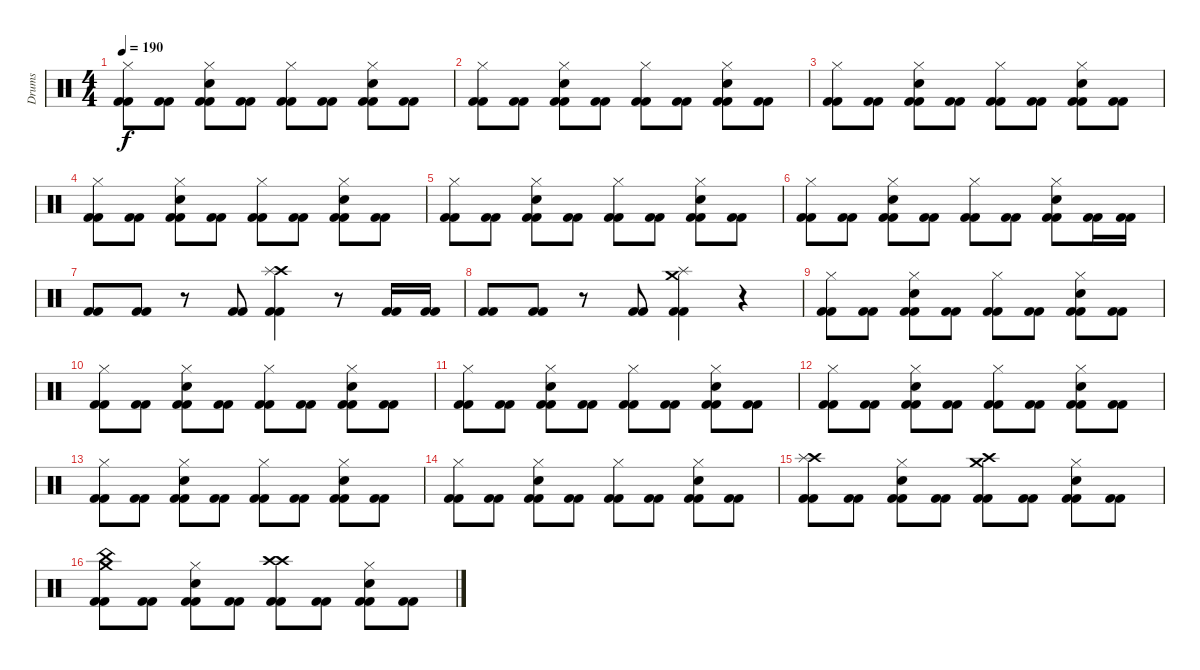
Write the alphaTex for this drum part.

\track ("Drums" "Drums") {instrument percussion}
\staff {score}
\articulation defaults
\ts (4 4)
\tempo 190
\clef neutral
\ks c
("Hi-Hat (closed)" "Kick (hit) 2" "Kick (hit) 2").8{dy f} ("Kick (hit) 2" "Kick (hit) 2").8 ("Hi-Hat (closed)" "Snare (hit) 2" "Kick (hit) 2" "Kick (hit) 2").8 ("Kick (hit) 2" "Kick (hit) 2").8 ("Hi-Hat (closed)" "Kick (hit) 2" "Kick (hit) 2").8 ("Kick (hit) 2" "Kick (hit) 2").8 ("Hi-Hat (closed)" "Snare (hit) 2" "Kick (hit) 2" "Kick (hit) 2").8 ("Kick (hit) 2" "Kick (hit) 2").8 |
("Hi-Hat (closed)" "Kick (hit) 2" "Kick (hit) 2").8 ("Kick (hit) 2" "Kick (hit) 2").8 ("Hi-Hat (closed)" "Snare (hit) 2" "Kick (hit) 2" "Kick (hit) 2").8 ("Kick (hit) 2" "Kick (hit) 2").8 ("Hi-Hat (closed)" "Kick (hit) 2" "Kick (hit) 2").8 ("Kick (hit) 2" "Kick (hit) 2").8 ("Hi-Hat (closed)" "Snare (hit) 2" "Kick (hit) 2" "Kick (hit) 2").8 ("Kick (hit) 2" "Kick (hit) 2").8 |
("Hi-Hat (closed)" "Kick (hit) 2" "Kick (hit) 2").8 ("Kick (hit) 2" "Kick (hit) 2").8 ("Hi-Hat (closed)" "Snare (hit) 2" "Kick (hit) 2" "Kick (hit) 2").8 ("Kick (hit) 2" "Kick (hit) 2").8 ("Hi-Hat (closed)" "Kick (hit) 2" "Kick (hit) 2").8 ("Kick (hit) 2" "Kick (hit) 2").8 ("Hi-Hat (closed)" "Snare (hit) 2" "Kick (hit) 2" "Kick (hit) 2").8 ("Kick (hit) 2" "Kick (hit) 2").8 |
("Hi-Hat (closed)" "Kick (hit) 2" "Kick (hit) 2").8 ("Kick (hit) 2" "Kick (hit) 2").8 ("Hi-Hat (closed)" "Snare (hit) 2" "Kick (hit) 2" "Kick (hit) 2").8 ("Kick (hit) 2" "Kick (hit) 2").8 ("Hi-Hat (closed)" "Kick (hit) 2" "Kick (hit) 2").8 ("Kick (hit) 2" "Kick (hit) 2").8 ("Hi-Hat (closed)" "Snare (hit) 2" "Kick (hit) 2" "Kick (hit) 2").8 ("Kick (hit) 2" "Kick (hit) 2").8 |
("Hi-Hat (closed)" "Kick (hit) 2" "Kick (hit) 2").8 ("Kick (hit) 2" "Kick (hit) 2").8 ("Hi-Hat (closed)" "Snare (hit) 2" "Kick (hit) 2" "Kick (hit) 2").8 ("Kick (hit) 2" "Kick (hit) 2").8 ("Hi-Hat (closed)" "Kick (hit) 2" "Kick (hit) 2").8 ("Kick (hit) 2" "Kick (hit) 2").8 ("Hi-Hat (closed)" "Snare (hit) 2" "Kick (hit) 2" "Kick (hit) 2").8 ("Kick (hit) 2" "Kick (hit) 2").8 |
("Hi-Hat (closed)" "Kick (hit) 2" "Kick (hit) 2").8 ("Kick (hit) 2" "Kick (hit) 2").8 ("Hi-Hat (closed)" "Snare (hit) 2" "Kick (hit) 2" "Kick (hit) 2").8 ("Kick (hit) 2" "Kick (hit) 2").8 ("Hi-Hat (closed)" "Kick (hit) 2" "Kick (hit) 2").8 ("Kick (hit) 2" "Kick (hit) 2").8 ("Hi-Hat (closed)" "Snare (hit) 2" "Kick (hit) 2" "Kick (hit) 2").8 ("Kick (hit) 2" "Kick (hit) 2").16 ("Kick (hit) 2" "Kick (hit) 2").16 |
("Kick (hit) 2" "Kick (hit) 2").8 ("Kick (hit) 2" "Kick (hit) 2").8 r.8 ("Kick (hit) 2" "Kick (hit) 2").8 ("Crash high (hit)" "Splash (hit)" "Kick (hit) 2" "Kick (hit) 2").4 r.8 ("Kick (hit) 2" "Kick (hit) 2").16 ("Kick (hit) 2" "Kick (hit) 2").16 |
("Kick (hit) 2" "Kick (hit) 2").8 ("Kick (hit) 2" "Kick (hit) 2").8 r.8 ("Kick (hit) 2" "Kick (hit) 2").8 ("Splash (hit)" "Crash medium (hit)" "Kick (hit) 2" "Kick (hit) 2").4 r.4 |
("Hi-Hat (closed)" "Kick (hit) 2" "Kick (hit) 2").8 ("Kick (hit) 2" "Kick (hit) 2").8 ("Hi-Hat (closed)" "Snare (hit) 2" "Kick (hit) 2" "Kick (hit) 2").8 ("Kick (hit) 2" "Kick (hit) 2").8 ("Hi-Hat (closed)" "Kick (hit) 2" "Kick (hit) 2").8 ("Kick (hit) 2" "Kick (hit) 2").8 ("Hi-Hat (closed)" "Snare (hit) 2" "Kick (hit) 2" "Kick (hit) 2").8 ("Kick (hit) 2" "Kick (hit) 2").8 |
("Hi-Hat (closed)" "Kick (hit) 2" "Kick (hit) 2").8 ("Kick (hit) 2" "Kick (hit) 2").8 ("Hi-Hat (closed)" "Snare (hit) 2" "Kick (hit) 2" "Kick (hit) 2").8 ("Kick (hit) 2" "Kick (hit) 2").8 ("Hi-Hat (closed)" "Kick (hit) 2" "Kick (hit) 2").8 ("Kick (hit) 2" "Kick (hit) 2").8 ("Hi-Hat (closed)" "Snare (hit) 2" "Kick (hit) 2" "Kick (hit) 2").8 ("Kick (hit) 2" "Kick (hit) 2").8 |
("Hi-Hat (closed)" "Kick (hit) 2" "Kick (hit) 2").8 ("Kick (hit) 2" "Kick (hit) 2").8 ("Hi-Hat (closed)" "Snare (hit) 2" "Kick (hit) 2" "Kick (hit) 2").8 ("Kick (hit) 2" "Kick (hit) 2").8 ("Hi-Hat (closed)" "Kick (hit) 2" "Kick (hit) 2").8 ("Kick (hit) 2" "Kick (hit) 2").8 ("Hi-Hat (closed)" "Snare (hit) 2" "Kick (hit) 2" "Kick (hit) 2").8 ("Kick (hit) 2" "Kick (hit) 2").8 |
("Hi-Hat (closed)" "Kick (hit) 2" "Kick (hit) 2").8 ("Kick (hit) 2" "Kick (hit) 2").8 ("Hi-Hat (closed)" "Snare (hit) 2" "Kick (hit) 2" "Kick (hit) 2").8 ("Kick (hit) 2" "Kick (hit) 2").8 ("Hi-Hat (closed)" "Kick (hit) 2" "Kick (hit) 2").8 ("Kick (hit) 2" "Kick (hit) 2").8 ("Hi-Hat (closed)" "Snare (hit) 2" "Kick (hit) 2" "Kick (hit) 2").8 ("Kick (hit) 2" "Kick (hit) 2").8 |
("Hi-Hat (closed)" "Kick (hit) 2" "Kick (hit) 2").8 ("Kick (hit) 2" "Kick (hit) 2").8 ("Hi-Hat (closed)" "Snare (hit) 2" "Kick (hit) 2" "Kick (hit) 2").8 ("Kick (hit) 2" "Kick (hit) 2").8 ("Hi-Hat (closed)" "Kick (hit) 2" "Kick (hit) 2").8 ("Kick (hit) 2" "Kick (hit) 2").8 ("Hi-Hat (closed)" "Snare (hit) 2" "Kick (hit) 2" "Kick (hit) 2").8 ("Kick (hit) 2" "Kick (hit) 2").8 |
("Hi-Hat (closed)" "Kick (hit) 2" "Kick (hit) 2").8 ("Kick (hit) 2" "Kick (hit) 2").8 ("Hi-Hat (closed)" "Snare (hit) 2" "Kick (hit) 2" "Kick (hit) 2").8 ("Kick (hit) 2" "Kick (hit) 2").8 ("Hi-Hat (closed)" "Kick (hit) 2" "Kick (hit) 2").8 ("Kick (hit) 2" "Kick (hit) 2").8 ("Hi-Hat (closed)" "Snare (hit) 2" "Kick (hit) 2" "Kick (hit) 2").8 ("Kick (hit) 2" "Kick (hit) 2").8 |
("Crash high (hit)" "Splash (hit)" "Kick (hit) 2" "Kick (hit) 2").8 ("Kick (hit) 2" "Kick (hit) 2").8 ("Hi-Hat (closed)" "Snare (hit) 2" "Kick (hit) 2" "Kick (hit) 2").8 ("Kick (hit) 2" "Kick (hit) 2").8 ("Crash high (hit)" "Crash medium (hit)" "Kick (hit) 2" "Kick (hit) 2").8 ("Kick (hit) 2" "Kick (hit) 2").8 ("Hi-Hat (closed)" "Snare (hit) 2" "Kick (hit) 2" "Kick (hit) 2").8 ("Kick (hit) 2" "Kick (hit) 2").8 |
("China (hit)" "Crash medium (hit)" "Kick (hit) 2" "Kick (hit) 2").8 ("Kick (hit) 2" "Kick (hit) 2").8 ("Hi-Hat (closed)" "Snare (hit) 2" "Kick (hit) 2" "Kick (hit) 2").8 ("Kick (hit) 2" "Kick (hit) 2").8 ("Crash high (hit)" "Crash high (hit)" "Kick (hit) 2" "Kick (hit) 2").8 ("Kick (hit) 2" "Kick (hit) 2").8 ("Hi-Hat (closed)" "Snare (hit) 2" "Kick (hit) 2" "Kick (hit) 2").8 ("Kick (hit) 2" "Kick (hit) 2").8
